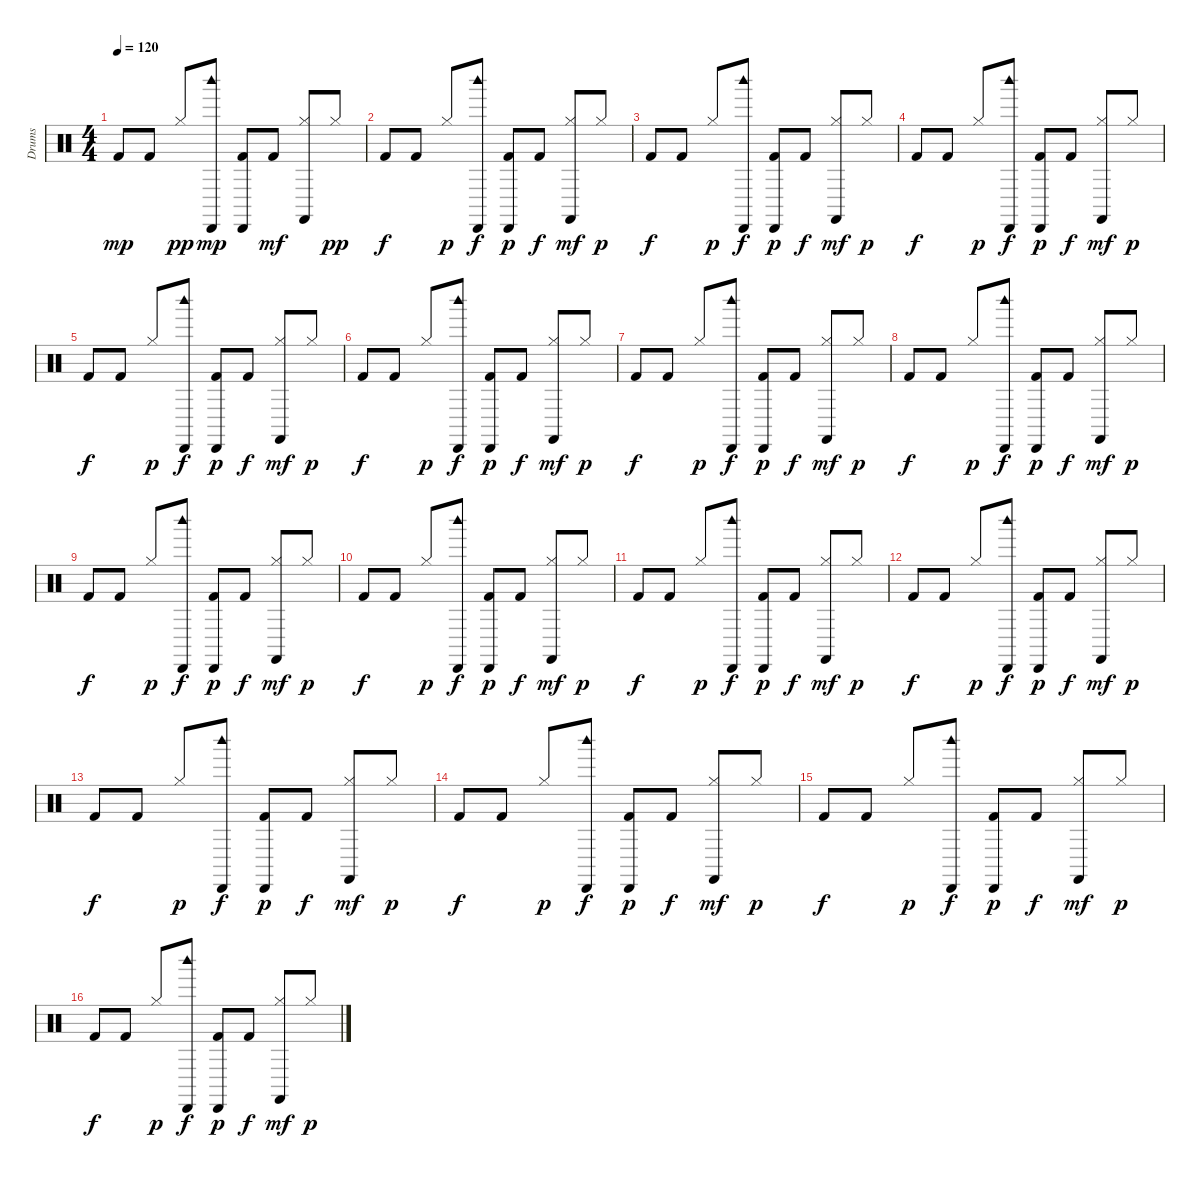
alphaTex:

\track ("Drums" "Drums") {instrument percussion}
\staff {score}
\articulation defaults
\ts (4 4)
\tempo 120
\clef neutral
\ks c "Kick (hit) 2".8{dy mp} "Kick (hit) 2".8 "Hi-Hat (closed)".8{dy pp}
("Woodblock high (hit)" "Cabasa (hit)").8{dy mp} ("Cabasa (hit)" "Kick (hit) 2").8 "Kick (hit) 2".8{dy mf} ("Castanets (hit)" "Hi-Hat (closed)").8 "Hi-Hat (closed)".8{dy pp} |
"Kick (hit) 2".8{dy f} "Kick (hit) 2".8 "Hi-Hat (closed)".8{dy p} ("Woodblock high (hit)" "Cabasa (hit)").8{dy f} ("Cabasa (hit)" "Kick (hit) 2").8{dy p} "Kick (hit) 2".8{dy f} ("Castanets (hit)" "Hi-Hat (closed)").8{dy mf} "Hi-Hat (closed)".8{dy p} |
"Kick (hit) 2".8{dy f} "Kick (hit) 2".8 "Hi-Hat (closed)".8{dy p} ("Woodblock high (hit)" "Cabasa (hit)").8{dy f} ("Cabasa (hit)" "Kick (hit) 2").8{dy p} "Kick (hit) 2".8{dy f} ("Castanets (hit)" "Hi-Hat (closed)").8{dy mf} "Hi-Hat (closed)".8{dy p} |
"Kick (hit) 2".8{dy f} "Kick (hit) 2".8 "Hi-Hat (closed)".8{dy p} ("Woodblock high (hit)" "Cabasa (hit)").8{dy f} ("Cabasa (hit)" "Kick (hit) 2").8{dy p} "Kick (hit) 2".8{dy f} ("Castanets (hit)" "Hi-Hat (closed)").8{dy mf} "Hi-Hat (closed)".8{dy p} |
"Kick (hit) 2".8{dy f} "Kick (hit) 2".8 "Hi-Hat (closed)".8{dy p} ("Woodblock high (hit)" "Cabasa (hit)").8{dy f} ("Cabasa (hit)" "Kick (hit) 2").8{dy p} "Kick (hit) 2".8{dy f} ("Castanets (hit)" "Hi-Hat (closed)").8{dy mf} "Hi-Hat (closed)".8{dy p} |
"Kick (hit) 2".8{dy f} "Kick (hit) 2".8 "Hi-Hat (closed)".8{dy p} ("Woodblock high (hit)" "Cabasa (hit)").8{dy f} ("Cabasa (hit)" "Kick (hit) 2").8{dy p} "Kick (hit) 2".8{dy f} ("Castanets (hit)" "Hi-Hat (closed)").8{dy mf} "Hi-Hat (closed)".8{dy p} |
"Kick (hit) 2".8{dy f} "Kick (hit) 2".8 "Hi-Hat (closed)".8{dy p} ("Woodblock high (hit)" "Cabasa (hit)").8{dy f} ("Cabasa (hit)" "Kick (hit) 2").8{dy p} "Kick (hit) 2".8{dy f} ("Castanets (hit)" "Hi-Hat (closed)").8{dy mf} "Hi-Hat (closed)".8{dy p} |
"Kick (hit) 2".8{dy f} "Kick (hit) 2".8 "Hi-Hat (closed)".8{dy p} ("Woodblock high (hit)" "Cabasa (hit)").8{dy f} ("Cabasa (hit)" "Kick (hit) 2").8{dy p} "Kick (hit) 2".8{dy f} ("Castanets (hit)" "Hi-Hat (closed)").8{dy mf} "Hi-Hat (closed)".8{dy p} |
"Kick (hit) 2".8{dy f} "Kick (hit) 2".8 "Hi-Hat (closed)".8{dy p} ("Woodblock high (hit)" "Cabasa (hit)").8{dy f} ("Cabasa (hit)" "Kick (hit) 2").8{dy p} "Kick (hit) 2".8{dy f} ("Castanets (hit)" "Hi-Hat (closed)").8{dy mf} "Hi-Hat (closed)".8{dy p} |
"Kick (hit) 2".8{dy f} "Kick (hit) 2".8 "Hi-Hat (closed)".8{dy p} ("Woodblock high (hit)" "Cabasa (hit)").8{dy f} ("Cabasa (hit)" "Kick (hit) 2").8{dy p} "Kick (hit) 2".8{dy f} ("Castanets (hit)" "Hi-Hat (closed)").8{dy mf} "Hi-Hat (closed)".8{dy p} |
"Kick (hit) 2".8{dy f} "Kick (hit) 2".8 "Hi-Hat (closed)".8{dy p} ("Woodblock high (hit)" "Cabasa (hit)").8{dy f} ("Cabasa (hit)" "Kick (hit) 2").8{dy p} "Kick (hit) 2".8{dy f} ("Castanets (hit)" "Hi-Hat (closed)").8{dy mf} "Hi-Hat (closed)".8{dy p} |
"Kick (hit) 2".8{dy f} "Kick (hit) 2".8 "Hi-Hat (closed)".8{dy p} ("Woodblock high (hit)" "Cabasa (hit)").8{dy f} ("Cabasa (hit)" "Kick (hit) 2").8{dy p} "Kick (hit) 2".8{dy f} ("Castanets (hit)" "Hi-Hat (closed)").8{dy mf} "Hi-Hat (closed)".8{dy p} |
"Kick (hit) 2".8{dy f} "Kick (hit) 2".8 "Hi-Hat (closed)".8{dy p} ("Woodblock high (hit)" "Cabasa (hit)").8{dy f} ("Cabasa (hit)" "Kick (hit) 2").8{dy p} "Kick (hit) 2".8{dy f} ("Castanets (hit)" "Hi-Hat (closed)").8{dy mf} "Hi-Hat (closed)".8{dy p} |
"Kick (hit) 2".8{dy f} "Kick (hit) 2".8 "Hi-Hat (closed)".8{dy p} ("Woodblock high (hit)" "Cabasa (hit)").8{dy f} ("Cabasa (hit)" "Kick (hit) 2").8{dy p} "Kick (hit) 2".8{dy f} ("Castanets (hit)" "Hi-Hat (closed)").8{dy mf} "Hi-Hat (closed)".8{dy p} |
"Kick (hit) 2".8{dy f} "Kick (hit) 2".8 "Hi-Hat (closed)".8{dy p} ("Woodblock high (hit)" "Cabasa (hit)").8{dy f} ("Cabasa (hit)" "Kick (hit) 2").8{dy p} "Kick (hit) 2".8{dy f} ("Castanets (hit)" "Hi-Hat (closed)").8{dy mf} "Hi-Hat (closed)".8{dy p} |
"Kick (hit) 2".8{dy f} "Kick (hit) 2".8 "Hi-Hat (closed)".8{dy p} ("Woodblock high (hit)" "Cabasa (hit)").8{dy f} ("Cabasa (hit)" "Kick (hit) 2").8{dy p} "Kick (hit) 2".8{dy f} ("Castanets (hit)" "Hi-Hat (closed)").8{dy mf} "Hi-Hat (closed)".8{dy p}
